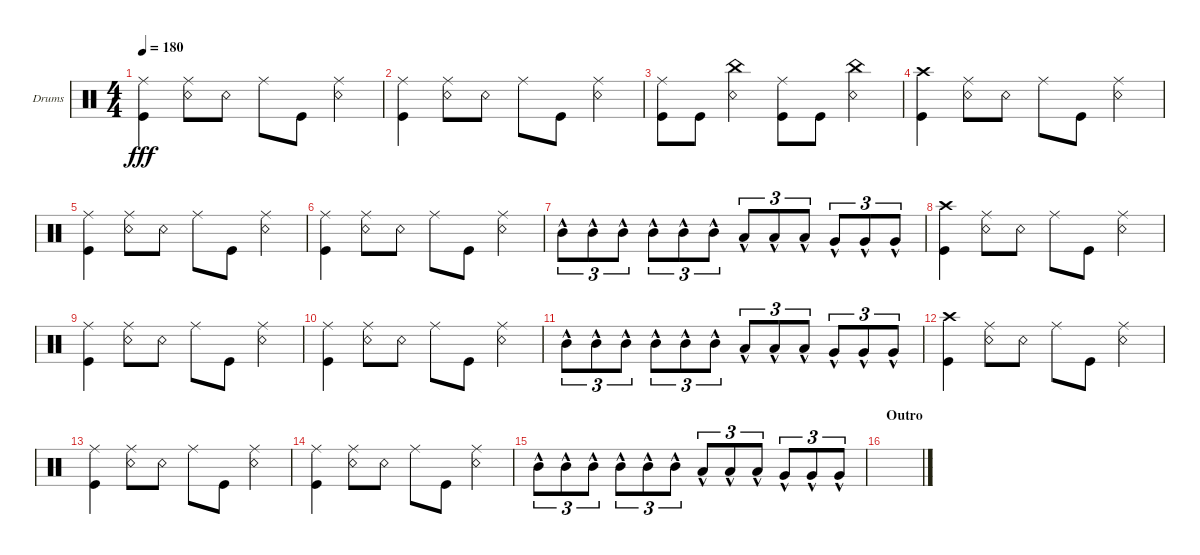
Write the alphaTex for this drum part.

\defaultSystemsLayout 4
\bracketExtendMode groupsimilarinstruments
\firstSystemTrackNameOrientation horizontal
\otherSystemsTrackNameOrientation horizontal
\track ("Drumkit" "Drums") {instrument percussion}
\staff {score}
\articulation defaults
\ts (4 4)
\tempo 180
\clef neutral
\ks c
("Kick (hit)" "Ride (middle)").4{dy fff} ("Snare (rim shot)" "Ride (middle)").8 "Snare (rim shot)".8 "Ride (middle)".8 "Kick (hit)".8 ("Snare (rim shot)" "Ride (middle)").4 |
("Kick (hit)" "Ride (middle)").4 ("Snare (rim shot)" "Ride (middle)").8 "Snare (rim shot)".8 "Ride (middle)".8 "Kick (hit)".8 ("Snare (rim shot)" "Ride (middle)").4 |
("Kick (hit)" "Ride (middle)").8 "Kick (hit)".8 ("Snare (rim shot)" "China (hit)").4 ("Kick (hit)" "Ride (middle)").8 "Kick (hit)".8 ("Snare (rim shot)" "China (hit)").4 |
("Crash high (hit)" "Kick (hit)").4 ("Snare (rim shot)" "Ride (middle)").8 "Snare (rim shot)".8 "Ride (middle)".8 "Kick (hit)".8 ("Snare (rim shot)" "Ride (middle)").4 |
("Kick (hit)" "Ride (middle)").4 ("Snare (rim shot)" "Ride (middle)").8 "Snare (rim shot)".8 "Ride (middle)".8 "Kick (hit)".8 ("Snare (rim shot)" "Ride (middle)").4 |
("Kick (hit)" "Ride (middle)").4 ("Snare (rim shot)" "Ride (middle)").8 "Snare (rim shot)".8 "Ride (middle)".8 "Kick (hit)".8 ("Snare (rim shot)" "Ride (middle)").4 |
"Mid Tom (hit)"{hac}.8{tu (3 2)} "Mid Tom (hit)"{hac}.8{tu (3 2)} "Mid Tom (hit)"{hac}.8{tu (3 2)} "Mid Tom (hit)"{hac}.8{tu (3 2)} "Mid Tom (hit)"{hac}.8{tu (3 2)} "Mid Tom (hit)"{hac}.8{tu (3 2)} "Low Tom (hit)"{hac}.8{tu (3 2)} "Low Tom (hit)"{hac}.8{tu (3 2)} "Low Tom (hit)"{hac}.8{tu (3 2)} "Very Low Tom (hit)"{hac}.8{tu (3 2)} "Very Low Tom (hit)"{hac}.8{tu (3 2)} "Very Low Tom (hit)"{hac}.8{tu (3 2)} |
("Crash high (hit)" "Kick (hit)").4 ("Snare (rim shot)" "Ride (middle)").8 "Snare (rim shot)".8 "Ride (middle)".8 "Kick (hit)".8 ("Snare (rim shot)" "Ride (middle)").4 |
("Kick (hit)" "Ride (middle)").4 ("Snare (rim shot)" "Ride (middle)").8 "Snare (rim shot)".8 "Ride (middle)".8 "Kick (hit)".8 ("Snare (rim shot)" "Ride (middle)").4 |
("Kick (hit)" "Ride (middle)").4 ("Snare (rim shot)" "Ride (middle)").8 "Snare (rim shot)".8 "Ride (middle)".8 "Kick (hit)".8 ("Snare (rim shot)" "Ride (middle)").4 |
"Mid Tom (hit)"{hac}.8{tu (3 2)} "Mid Tom (hit)"{hac}.8{tu (3 2)} "Mid Tom (hit)"{hac}.8{tu (3 2)} "Mid Tom (hit)"{hac}.8{tu (3 2)} "Mid Tom (hit)"{hac}.8{tu (3 2)} "Mid Tom (hit)"{hac}.8{tu (3 2)} "Low Tom (hit)"{hac}.8{tu (3 2)} "Low Tom (hit)"{hac}.8{tu (3 2)} "Low Tom (hit)"{hac}.8{tu (3 2)} "Very Low Tom (hit)"{hac}.8{tu (3 2)} "Very Low Tom (hit)"{hac}.8{tu (3 2)} "Very Low Tom (hit)"{hac}.8{tu (3 2)} |
("Crash high (hit)" "Kick (hit)").4 ("Snare (rim shot)" "Ride (middle)").8 "Snare (rim shot)".8 "Ride (middle)".8 "Kick (hit)".8 ("Snare (rim shot)" "Ride (middle)").4 |
("Kick (hit)" "Ride (middle)").4 ("Snare (rim shot)" "Ride (middle)").8 "Snare (rim shot)".8 "Ride (middle)".8 "Kick (hit)".8 ("Snare (rim shot)" "Ride (middle)").4 |
("Kick (hit)" "Ride (middle)").4 ("Snare (rim shot)" "Ride (middle)").8 "Snare (rim shot)".8 "Ride (middle)".8 "Kick (hit)".8 ("Snare (rim shot)" "Ride (middle)").4 |
"Mid Tom (hit)"{hac}.8{tu (3 2)} "Mid Tom (hit)"{hac}.8{tu (3 2)} "Mid Tom (hit)"{hac}.8{tu (3 2)} "Mid Tom (hit)"{hac}.8{tu (3 2)} "Mid Tom (hit)"{hac}.8{tu (3 2)} "Mid Tom (hit)"{hac}.8{tu (3 2)} "Low Tom (hit)"{hac}.8{tu (3 2)} "Low Tom (hit)"{hac}.8{tu (3 2)} "Low Tom (hit)"{hac}.8{tu (3 2)} "Very Low Tom (hit)"{hac}.8{tu (3 2)} "Very Low Tom (hit)"{hac}.8{tu (3 2)} "Very Low Tom (hit)"{hac}.8{tu (3 2)} |
\section ("" "Outro")
